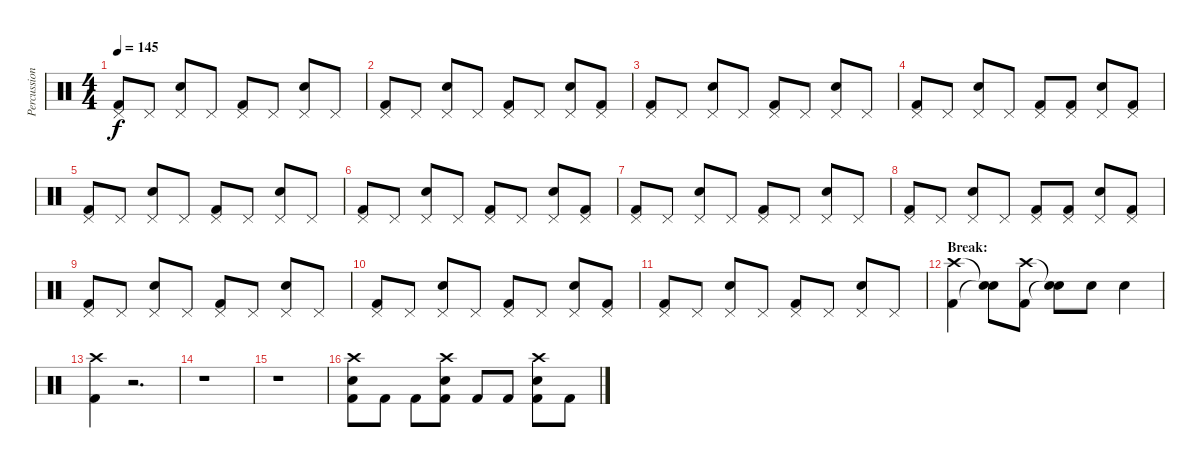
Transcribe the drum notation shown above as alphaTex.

\track ("Percussion" "Percussion") {instrument percussion}
\staff {score}
\articulation defaults
\ts (4 4)
\tempo 145
\clef neutral
\ks c
("Pedal Hi-Hat (hit)" "Kick (hit) 2").8{dy f} "Pedal Hi-Hat (hit)".8 ("Pedal Hi-Hat (hit)" "Electric Snare (hit)").8 "Pedal Hi-Hat (hit)".8 ("Pedal Hi-Hat (hit)" "Kick (hit) 2").8 "Pedal Hi-Hat (hit)".8 ("Pedal Hi-Hat (hit)" "Electric Snare (hit)").8 "Pedal Hi-Hat (hit)".8 |
("Pedal Hi-Hat (hit)" "Kick (hit) 2").8 "Pedal Hi-Hat (hit)".8 ("Pedal Hi-Hat (hit)" "Electric Snare (hit)").8 "Pedal Hi-Hat (hit)".8 ("Pedal Hi-Hat (hit)" "Kick (hit) 2").8 "Pedal Hi-Hat (hit)".8 ("Pedal Hi-Hat (hit)" "Electric Snare (hit)").8 ("Pedal Hi-Hat (hit)" "Kick (hit) 2").8 |
("Pedal Hi-Hat (hit)" "Kick (hit) 2").8 "Pedal Hi-Hat (hit)".8 ("Pedal Hi-Hat (hit)" "Electric Snare (hit)").8 "Pedal Hi-Hat (hit)".8 ("Pedal Hi-Hat (hit)" "Kick (hit) 2").8 "Pedal Hi-Hat (hit)".8 ("Pedal Hi-Hat (hit)" "Electric Snare (hit)").8 "Pedal Hi-Hat (hit)".8 |
("Pedal Hi-Hat (hit)" "Kick (hit) 2").8 "Pedal Hi-Hat (hit)".8 ("Pedal Hi-Hat (hit)" "Electric Snare (hit)").8 "Pedal Hi-Hat (hit)".8 ("Pedal Hi-Hat (hit)" "Kick (hit) 2").8 ("Pedal Hi-Hat (hit)" "Kick (hit) 2").8 ("Pedal Hi-Hat (hit)" "Electric Snare (hit)").8 ("Pedal Hi-Hat (hit)" "Kick (hit) 2").8 |
("Pedal Hi-Hat (hit)" "Kick (hit) 2").8 "Pedal Hi-Hat (hit)".8 ("Pedal Hi-Hat (hit)" "Electric Snare (hit)").8 "Pedal Hi-Hat (hit)".8 ("Pedal Hi-Hat (hit)" "Kick (hit) 2").8 "Pedal Hi-Hat (hit)".8 ("Pedal Hi-Hat (hit)" "Electric Snare (hit)").8 "Pedal Hi-Hat (hit)".8 |
("Pedal Hi-Hat (hit)" "Kick (hit) 2").8 "Pedal Hi-Hat (hit)".8 ("Pedal Hi-Hat (hit)" "Electric Snare (hit)").8 "Pedal Hi-Hat (hit)".8 ("Pedal Hi-Hat (hit)" "Kick (hit) 2").8 "Pedal Hi-Hat (hit)".8 ("Pedal Hi-Hat (hit)" "Electric Snare (hit)").8 ("Pedal Hi-Hat (hit)" "Kick (hit) 2").8 |
("Pedal Hi-Hat (hit)" "Kick (hit) 2").8 "Pedal Hi-Hat (hit)".8 ("Pedal Hi-Hat (hit)" "Electric Snare (hit)").8 "Pedal Hi-Hat (hit)".8 ("Pedal Hi-Hat (hit)" "Kick (hit) 2").8 "Pedal Hi-Hat (hit)".8 ("Pedal Hi-Hat (hit)" "Electric Snare (hit)").8 "Pedal Hi-Hat (hit)".8 |
("Pedal Hi-Hat (hit)" "Kick (hit) 2").8 "Pedal Hi-Hat (hit)".8 ("Pedal Hi-Hat (hit)" "Electric Snare (hit)").8 "Pedal Hi-Hat (hit)".8 ("Pedal Hi-Hat (hit)" "Kick (hit) 2").8 ("Pedal Hi-Hat (hit)" "Kick (hit) 2").8 ("Pedal Hi-Hat (hit)" "Electric Snare (hit)").8 ("Pedal Hi-Hat (hit)" "Kick (hit) 2").8 |
("Pedal Hi-Hat (hit)" "Kick (hit) 2").8 "Pedal Hi-Hat (hit)".8 ("Pedal Hi-Hat (hit)" "Electric Snare (hit)").8 "Pedal Hi-Hat (hit)".8 ("Pedal Hi-Hat (hit)" "Kick (hit) 2").8 "Pedal Hi-Hat (hit)".8 ("Pedal Hi-Hat (hit)" "Electric Snare (hit)").8 "Pedal Hi-Hat (hit)".8 |
("Pedal Hi-Hat (hit)" "Kick (hit) 2").8 "Pedal Hi-Hat (hit)".8 ("Pedal Hi-Hat (hit)" "Electric Snare (hit)").8 "Pedal Hi-Hat (hit)".8 ("Pedal Hi-Hat (hit)" "Kick (hit) 2").8 "Pedal Hi-Hat (hit)".8 ("Pedal Hi-Hat (hit)" "Electric Snare (hit)").8 ("Pedal Hi-Hat (hit)" "Kick (hit) 2").8 |
("Pedal Hi-Hat (hit)" "Kick (hit) 2").8 "Pedal Hi-Hat (hit)".8 ("Pedal Hi-Hat (hit)" "Electric Snare (hit)").8 "Pedal Hi-Hat (hit)".8 ("Pedal Hi-Hat (hit)" "Kick (hit) 2").8 "Pedal Hi-Hat (hit)".8 ("Pedal Hi-Hat (hit)" "Electric Snare (hit)").8 "Pedal Hi-Hat (hit)".8 |
\section ("" "Break:")
("Crash high (hit)" "Kick (hit) 2").4 ("Snare (hit)"{t} "Snare (hit)"{t}).8 ("Crash high (hit)" "Kick (hit) 2").8 ("Snare (hit)"{t} "Snare (hit)"{t}).8 "Electric Snare (hit)".8 "Electric Snare (hit)".4 |
("Crash high (hit)" "Kick (hit) 2").4 r.2{d} |
r.1 |
r.1 |
("Crash high (hit)" "Electric Snare (hit)" "Kick (hit) 2").8 "Kick (hit) 2".8 "Kick (hit) 2".8 ("Crash high (hit)" "Electric Snare (hit)" "Kick (hit) 2").8 "Kick (hit) 2".8 "Kick (hit) 2".8 ("Crash high (hit)" "Electric Snare (hit)" "Kick (hit) 2").8 "Kick (hit) 2".8
